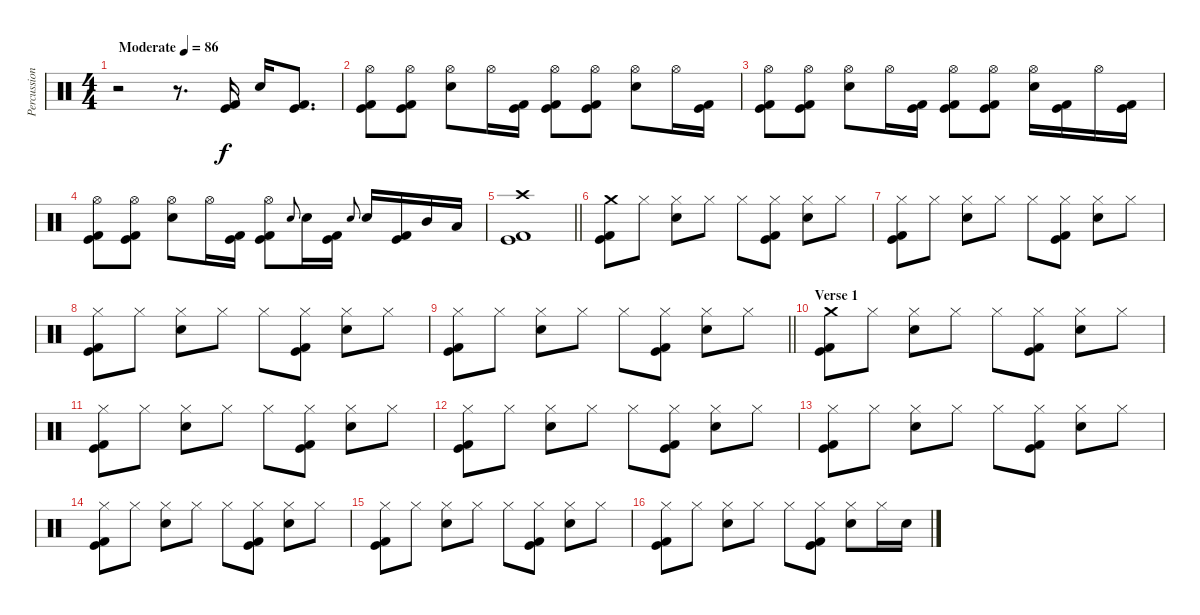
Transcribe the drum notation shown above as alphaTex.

\track ("Percussion" "Percussion") {instrument percussion}
\staff {score}
\articulation defaults
\ts (4 4)
\tempo (86 "Moderate")
\clef neutral
\ks c
r.2{dy f} r.8{d} ("Kick (hit)" "Kick (hit) 2").16 "Electric Snare (hit)".16 ("Kick (hit)" "Kick (hit) 2").8{d} |
("Hi-Hat (open)" "Kick (hit)" "Kick (hit) 2").8 ("Hi-Hat (open)" "Kick (hit)" "Kick (hit) 2").8 ("Hi-Hat (open)" "Electric Snare (hit)").8 "Hi-Hat (open)".16 ("Kick (hit)" "Kick (hit) 2").16 ("Hi-Hat (open)" "Kick (hit)" "Kick (hit) 2").8 ("Hi-Hat (open)" "Kick (hit)" "Kick (hit) 2").8 ("Hi-Hat (open)" "Electric Snare (hit)").8 "Hi-Hat (open)".16 ("Kick (hit)" "Kick (hit) 2").16 |
("Hi-Hat (open)" "Kick (hit)" "Kick (hit) 2").8 ("Hi-Hat (open)" "Kick (hit)" "Kick (hit) 2").8 ("Hi-Hat (open)" "Electric Snare (hit)").8 "Hi-Hat (open)".16 ("Kick (hit)" "Kick (hit) 2").16 ("Hi-Hat (open)" "Kick (hit)" "Kick (hit) 2").8 ("Hi-Hat (open)" "Kick (hit)" "Kick (hit) 2").8 ("Hi-Hat (open)" "Electric Snare (hit)").16 ("Kick (hit)" "Kick (hit) 2").16 "Hi-Hat (open)".16 ("Kick (hit)" "Kick (hit) 2").16 |
("Hi-Hat (open)" "Kick (hit)" "Kick (hit) 2").8 ("Hi-Hat (open)" "Kick (hit)" "Kick (hit) 2").8 ("Hi-Hat (open)" "Electric Snare (hit)").8 "Hi-Hat (open)".16 ("Kick (hit)" "Kick (hit) 2").16 ("Hi-Hat (open)" "Kick (hit)" "Kick (hit) 2").8 "Electric Snare (hit)".8{gr onbeat} "Electric Snare (hit)".16 ("Kick (hit)" "Kick (hit) 2").16 "Electric Snare (hit)".8{gr onbeat} "Electric Snare (hit)".16 ("Kick (hit)" "Kick (hit) 2").16 "Mid Tom (hit)".16 "Low Tom (hit)".16 |
\barLineRight lightlight
("Crash high (hit)" "Kick (hit)" "Kick (hit) 2").1 |
\section ("" "")
("Crash medium (hit)" "Kick (hit)" "Kick (hit) 2").8 "Hi-Hat (closed)".8 ("Hi-Hat (closed)" "Electric Snare (hit)").8 "Hi-Hat (closed)".8 "Hi-Hat (closed)".8 ("Hi-Hat (closed)" "Kick (hit)" "Kick (hit) 2").8 ("Hi-Hat (closed)" "Electric Snare (hit)").8 "Hi-Hat (closed)".8 |
("Hi-Hat (closed)" "Kick (hit)" "Kick (hit) 2").8 "Hi-Hat (closed)".8 ("Hi-Hat (closed)" "Electric Snare (hit)").8 "Hi-Hat (closed)".8 "Hi-Hat (closed)".8 ("Hi-Hat (closed)" "Kick (hit)" "Kick (hit) 2").8 ("Hi-Hat (closed)" "Electric Snare (hit)").8 "Hi-Hat (closed)".8 |
("Hi-Hat (closed)" "Kick (hit)" "Kick (hit) 2").8 "Hi-Hat (closed)".8 ("Hi-Hat (closed)" "Electric Snare (hit)").8 "Hi-Hat (closed)".8 "Hi-Hat (closed)".8 ("Hi-Hat (closed)" "Kick (hit)" "Kick (hit) 2").8 ("Hi-Hat (closed)" "Electric Snare (hit)").8 "Hi-Hat (closed)".8 |
\barLineRight lightlight
("Hi-Hat (closed)" "Kick (hit)" "Kick (hit) 2").8 "Hi-Hat (closed)".8 ("Hi-Hat (closed)" "Electric Snare (hit)").8 "Hi-Hat (closed)".8 "Hi-Hat (closed)".8 ("Hi-Hat (closed)" "Kick (hit)" "Kick (hit) 2").8 ("Hi-Hat (closed)" "Electric Snare (hit)").8 "Hi-Hat (closed)".8 |
\section ("" "Verse 1")
("Crash medium (hit)" "Kick (hit)" "Kick (hit) 2").8 "Hi-Hat (closed)".8 ("Hi-Hat (closed)" "Electric Snare (hit)").8 "Hi-Hat (closed)".8 "Hi-Hat (closed)".8 ("Hi-Hat (closed)" "Kick (hit)" "Kick (hit) 2").8 ("Hi-Hat (closed)" "Electric Snare (hit)").8 "Hi-Hat (closed)".8 |
("Hi-Hat (closed)" "Kick (hit)" "Kick (hit) 2").8 "Hi-Hat (closed)".8 ("Hi-Hat (closed)" "Electric Snare (hit)").8 "Hi-Hat (closed)".8 "Hi-Hat (closed)".8 ("Hi-Hat (closed)" "Kick (hit)" "Kick (hit) 2").8 ("Hi-Hat (closed)" "Electric Snare (hit)").8 "Hi-Hat (closed)".8 |
("Hi-Hat (closed)" "Kick (hit)" "Kick (hit) 2").8 "Hi-Hat (closed)".8 ("Hi-Hat (closed)" "Electric Snare (hit)").8 "Hi-Hat (closed)".8 "Hi-Hat (closed)".8 ("Hi-Hat (closed)" "Kick (hit)" "Kick (hit) 2").8 ("Hi-Hat (closed)" "Electric Snare (hit)").8 "Hi-Hat (closed)".8 |
("Hi-Hat (closed)" "Kick (hit)" "Kick (hit) 2").8 "Hi-Hat (closed)".8 ("Hi-Hat (closed)" "Electric Snare (hit)").8 "Hi-Hat (closed)".8 "Hi-Hat (closed)".8 ("Hi-Hat (closed)" "Kick (hit)" "Kick (hit) 2").8 ("Hi-Hat (closed)" "Electric Snare (hit)").8 "Hi-Hat (closed)".8 |
("Hi-Hat (closed)" "Kick (hit)" "Kick (hit) 2").8 "Hi-Hat (closed)".8 ("Hi-Hat (closed)" "Electric Snare (hit)").8 "Hi-Hat (closed)".8 "Hi-Hat (closed)".8 ("Hi-Hat (closed)" "Kick (hit)" "Kick (hit) 2").8 ("Hi-Hat (closed)" "Electric Snare (hit)").8 "Hi-Hat (closed)".8 |
("Hi-Hat (closed)" "Kick (hit)" "Kick (hit) 2").8 "Hi-Hat (closed)".8 ("Hi-Hat (closed)" "Electric Snare (hit)").8 "Hi-Hat (closed)".8 "Hi-Hat (closed)".8 ("Hi-Hat (closed)" "Kick (hit)" "Kick (hit) 2").8 ("Hi-Hat (closed)" "Electric Snare (hit)").8 "Hi-Hat (closed)".8 |
("Hi-Hat (closed)" "Kick (hit)" "Kick (hit) 2").8 "Hi-Hat (closed)".8 ("Hi-Hat (closed)" "Electric Snare (hit)").8 "Hi-Hat (closed)".8 "Hi-Hat (closed)".8 ("Hi-Hat (closed)" "Kick (hit)" "Kick (hit) 2").8 ("Hi-Hat (closed)" "Electric Snare (hit)").8 "Hi-Hat (closed)".16 "Electric Snare (hit)".16
